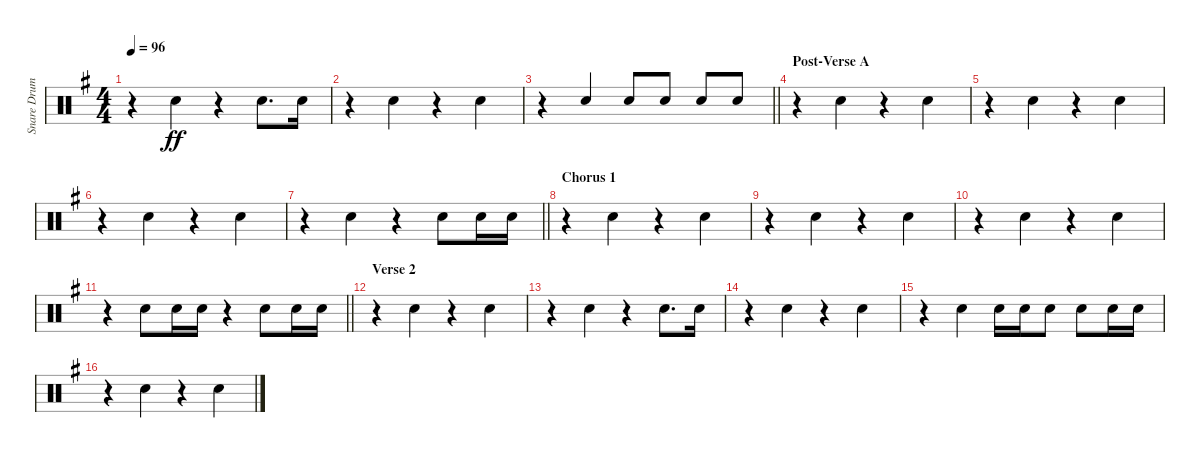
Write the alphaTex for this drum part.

\track ("Snare Drum" "Snare Drum") {instrument percussion}
\staff {score}
\articulation defaults
\ts (4 4)
\tempo 96
\clef neutral
\ks g
r.4{dy ff beam merge} "Electric Snare (hit)".4 r.4 "Electric Snare (hit)".8{d} "Electric Snare (hit)".16 |
r.4{beam merge} "Electric Snare (hit)".4 r.4{beam merge} "Electric Snare (hit)".4 |
\barLineRight lightlight
r.4{beam Up} "Electric Snare (hit)".4{beam Up} "Electric Snare (hit)".8{beam Up} "Electric Snare (hit)".8{beam Up} "Electric Snare (hit)".8{beam Up} "Electric Snare (hit)".8{beam Up} |
\section ("" "Post-Verse A")
r.4{beam merge} "Electric Snare (hit)".4 r.4{beam merge} "Electric Snare (hit)".4 |
r.4{beam merge} "Electric Snare (hit)".4 r.4{beam merge} "Electric Snare (hit)".4 |
r.4{beam merge} "Electric Snare (hit)".4 r.4{beam merge} "Electric Snare (hit)".4 |
\barLineRight lightlight
r.4{beam merge} "Electric Snare (hit)".4 r.4{beam merge} "Electric Snare (hit)".8 "Electric Snare (hit)".16 "Electric Snare (hit)".16 |
\section ("" "Chorus 1")
r.4{beam merge} "Electric Snare (hit)".4 r.4{beam merge} "Electric Snare (hit)".4 |
r.4{beam merge} "Electric Snare (hit)".4 r.4{beam merge} "Electric Snare (hit)".4 |
r.4{beam merge} "Electric Snare (hit)".4 r.4{beam merge} "Electric Snare (hit)".4 |
\barLineRight lightlight
r.4 "Electric Snare (hit)".8 "Electric Snare (hit)".16 "Electric Snare (hit)".16 r.4 "Electric Snare (hit)".8 "Electric Snare (hit)".16 "Electric Snare (hit)".16 |
\section ("" "Verse 2")
r.4{beam merge} "Electric Snare (hit)".4 r.4{beam merge} "Electric Snare (hit)".4 |
r.4{beam merge} "Electric Snare (hit)".4 r.4 "Electric Snare (hit)".8{d} "Electric Snare (hit)".16 |
r.4{beam merge} "Electric Snare (hit)".4 r.4{beam merge} "Electric Snare (hit)".4 |
r.4{beam merge} "Electric Snare (hit)".4 "Electric Snare (hit)".16 "Electric Snare (hit)".16 "Electric Snare (hit)".8 "Electric Snare (hit)".8 "Electric Snare (hit)".16 "Electric Snare (hit)".16 |
r.4{beam merge} "Electric Snare (hit)".4 r.4{beam merge} "Electric Snare (hit)".4
